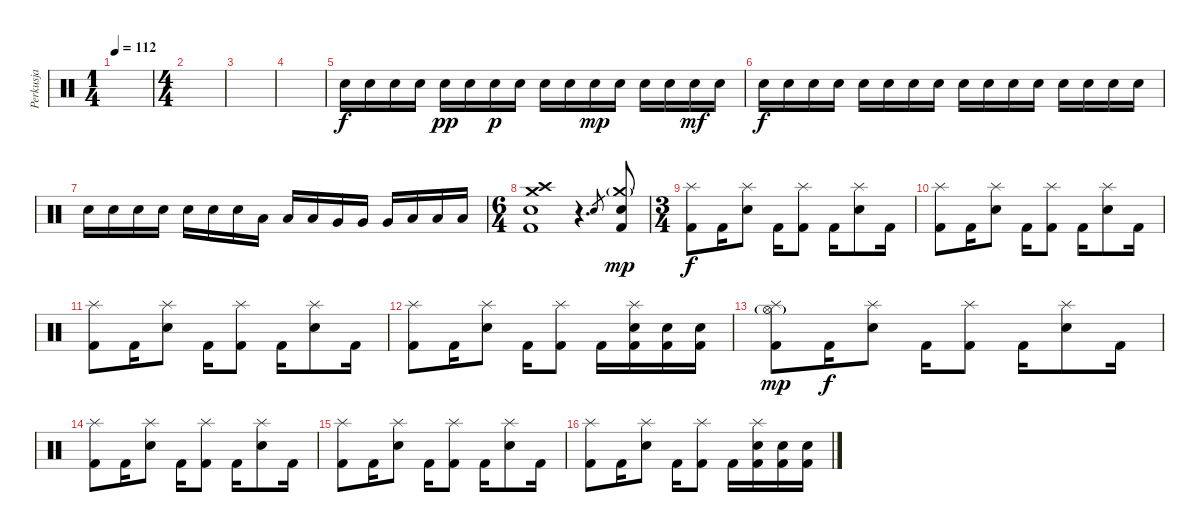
\track ("Perkusja" "Perkusja") {instrument percussion}
\staff {score}
\articulation defaults
\ts (1 4)
\tempo 112
\clef neutral
\ks c
|
\ts (4 4)
|
|
|
"Electric Snare (hit)".16 "Electric Snare (hit)".16 "Electric Snare (hit)".16 "Electric Snare (hit)".16 "Electric Snare (hit)".16{dy pp} "Electric Snare (hit)".16 "Electric Snare (hit)".16{dy p} "Electric Snare (hit)".16 "Electric Snare (hit)".16 "Electric Snare (hit)".16 "Electric Snare (hit)".16{dy mp} "Electric Snare (hit)".16 "Electric Snare (hit)".16 "Electric Snare (hit)".16 "Electric Snare (hit)".16{dy mf} "Electric Snare (hit)".16 |
"Electric Snare (hit)".16{dy f} "Electric Snare (hit)".16 "Electric Snare (hit)".16 "Electric Snare (hit)".16 "Electric Snare (hit)".16 "Electric Snare (hit)".16 "Electric Snare (hit)".16 "Electric Snare (hit)".16 "Electric Snare (hit)".16 "Electric Snare (hit)".16 "Electric Snare (hit)".16 "Electric Snare (hit)".16 "Electric Snare (hit)".16 "Electric Snare (hit)".16 "Electric Snare (hit)".16 "Electric Snare (hit)".16 |
"Electric Snare (hit)".16 "Electric Snare (hit)".16 "Electric Snare (hit)".16 "Electric Snare (hit)".16 "Electric Snare (hit)".16 "Electric Snare (hit)".16 "Electric Snare (hit)".16 "Low Tom (hit)".16 "Low Tom (hit)".16 "Low Tom (hit)".16 "Very Low Tom (hit)".16 "Very Low Tom (hit)".16 "Very Low Tom (hit)".16 "Low Floor Tom (hit)".16 "Low Floor Tom (hit)".16 "Low Floor Tom (hit)".16 |
\ts (6 4)
("Crash high (hit)" "Crash medium (hit)" "Electric Snare (hit)" "Kick (hit) 2").1 r.4{d} "Electric Snare (hit)".8{gr} ("Crash medium (hit)"{g} "Electric Snare (hit)" "Kick (hit) 2").8{dy mp} |
\ts (3 4)
("Splash (hit)" "Kick (hit) 2").8{dy f} "Kick (hit) 2".16 ("Splash (hit)" "Electric Snare (hit)").8 "Kick (hit) 2".16 ("Splash (hit)" "Kick (hit) 2").8 "Kick (hit) 2".16 ("Splash (hit)" "Electric Snare (hit)").8 "Kick (hit) 2".16 |
("Splash (hit)" "Kick (hit) 2").8 "Kick (hit) 2".16 ("Splash (hit)" "Electric Snare (hit)").8 "Kick (hit) 2".16 ("Splash (hit)" "Kick (hit) 2").8 "Kick (hit) 2".16 ("Splash (hit)" "Electric Snare (hit)").8 "Kick (hit) 2".16 |
("Splash (hit)" "Kick (hit) 2").8 "Kick (hit) 2".16 ("Splash (hit)" "Electric Snare (hit)").8 "Kick (hit) 2".16 ("Splash (hit)" "Kick (hit) 2").8 "Kick (hit) 2".16 ("Splash (hit)" "Electric Snare (hit)").8 "Kick (hit) 2".16 |
("Splash (hit)" "Kick (hit) 2").8 "Kick (hit) 2".16 ("Splash (hit)" "Electric Snare (hit)").8 "Kick (hit) 2".16 ("Splash (hit)" "Kick (hit) 2").8 "Kick (hit) 2".16 ("Splash (hit)" "Electric Snare (hit)" "Kick (hit) 2").16 ("Electric Snare (hit)" "Kick (hit) 2").16 ("Electric Snare (hit)" "Kick (hit) 2").16 |
("Splash (hit)" "Hi-Hat (open)"{g} "Kick (hit) 2").8{dy mp} "Kick (hit) 2".16{dy f} ("Splash (hit)" "Electric Snare (hit)").8 "Kick (hit) 2".16 ("Splash (hit)" "Kick (hit) 2").8 "Kick (hit) 2".16 ("Splash (hit)" "Electric Snare (hit)").8 "Kick (hit) 2".16 |
("Splash (hit)" "Kick (hit) 2").8 "Kick (hit) 2".16 ("Splash (hit)" "Electric Snare (hit)").8 "Kick (hit) 2".16 ("Splash (hit)" "Kick (hit) 2").8 "Kick (hit) 2".16 ("Splash (hit)" "Electric Snare (hit)").8 "Kick (hit) 2".16 |
("Splash (hit)" "Kick (hit) 2").8 "Kick (hit) 2".16 ("Splash (hit)" "Electric Snare (hit)").8 "Kick (hit) 2".16 ("Splash (hit)" "Kick (hit) 2").8 "Kick (hit) 2".16 ("Splash (hit)" "Electric Snare (hit)").8 "Kick (hit) 2".16 |
("Splash (hit)" "Kick (hit) 2").8 "Kick (hit) 2".16 ("Splash (hit)" "Electric Snare (hit)").8 "Kick (hit) 2".16 ("Splash (hit)" "Kick (hit) 2").8 "Kick (hit) 2".16 ("Splash (hit)" "Electric Snare (hit)" "Kick (hit) 2").16 ("Electric Snare (hit)" "Kick (hit) 2").16 ("Electric Snare (hit)" "Kick (hit) 2").16
